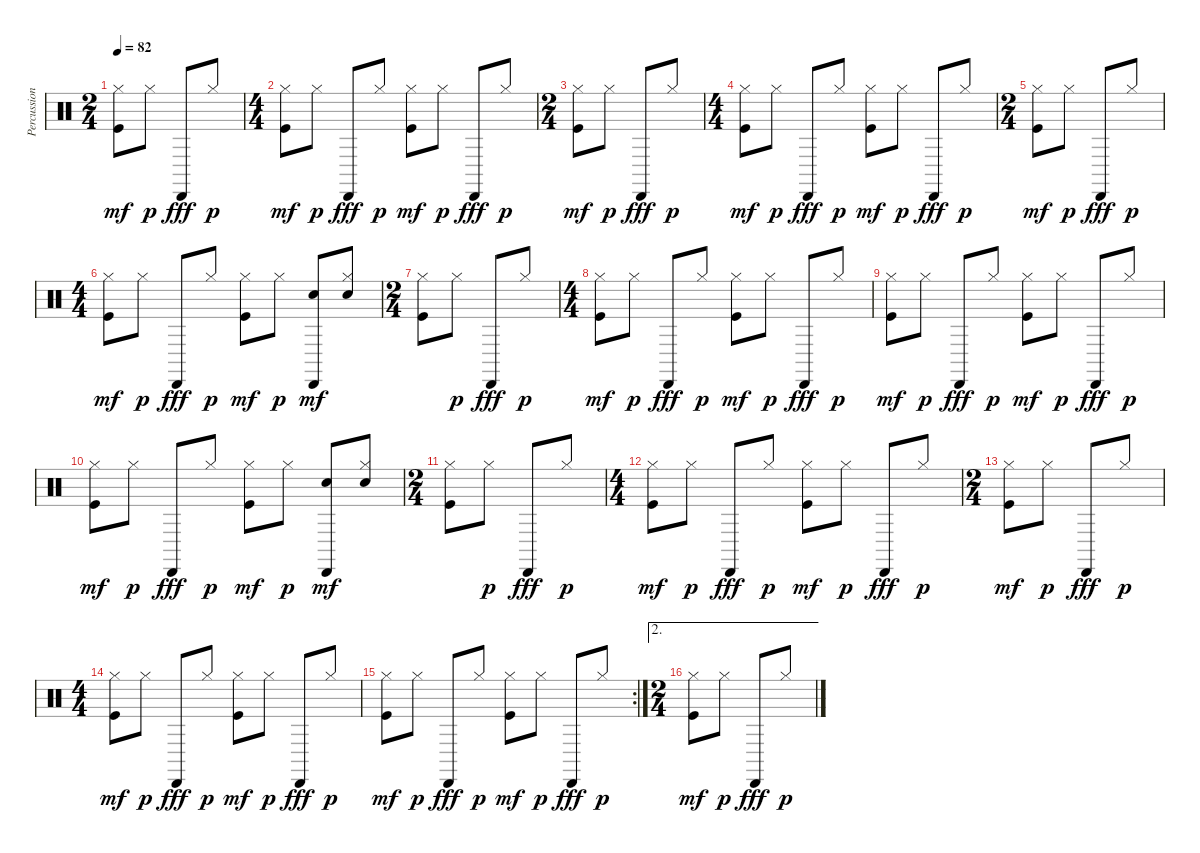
\track ("Percussions" "Percussion") {instrument percussion}
\staff {score}
\articulation defaults
\ts (2 4)
\tempo 82
\clef neutral
\ks c
("Hi-Hat (closed)" "Kick (hit)").8{dy mf} "Hi-Hat (closed)".8{dy p} "Cabasa (hit)".8{dy fff} "Hi-Hat (closed)".8{dy p} |
\ts (4 4)
("Hi-Hat (closed)" "Kick (hit)").8{dy mf} "Hi-Hat (closed)".8{dy p} "Cabasa (hit)".8{dy fff} "Hi-Hat (closed)".8{dy p} ("Hi-Hat (closed)" "Kick (hit)").8{dy mf} "Hi-Hat (closed)".8{dy p} "Cabasa (hit)".8{dy fff} "Hi-Hat (closed)".8{dy p} |
\ts (2 4)
("Hi-Hat (closed)" "Kick (hit)").8{dy mf} "Hi-Hat (closed)".8{dy p} "Cabasa (hit)".8{dy fff} "Hi-Hat (closed)".8{dy p} |
\ts (4 4)
("Hi-Hat (closed)" "Kick (hit)").8{dy mf} "Hi-Hat (closed)".8{dy p} "Cabasa (hit)".8{dy fff} "Hi-Hat (closed)".8{dy p} ("Hi-Hat (closed)" "Kick (hit)").8{dy mf} "Hi-Hat (closed)".8{dy p} "Cabasa (hit)".8{dy fff} "Hi-Hat (closed)".8{dy p} |
\ts (2 4)
("Hi-Hat (closed)" "Kick (hit)").8{dy mf} "Hi-Hat (closed)".8{dy p} "Cabasa (hit)".8{dy fff} "Hi-Hat (closed)".8{dy p} |
\ts (4 4)
("Hi-Hat (closed)" "Kick (hit)").8{dy mf} "Hi-Hat (closed)".8{dy p} "Cabasa (hit)".8{dy fff} "Hi-Hat (closed)".8{dy p} ("Hi-Hat (closed)" "Kick (hit)").8{dy mf} "Hi-Hat (closed)".8{dy p} ("Cabasa (hit)" "Snare (hit) 2").8{dy mf} ("Hi-Hat (closed)" "Snare (hit) 2").8 |
\ts (2 4)
("Hi-Hat (closed)" "Kick (hit)").8 "Hi-Hat (closed)".8{dy p} "Cabasa (hit)".8{dy fff} "Hi-Hat (closed)".8{dy p} |
\ts (4 4)
("Hi-Hat (closed)" "Kick (hit)").8{dy mf} "Hi-Hat (closed)".8{dy p} "Cabasa (hit)".8{dy fff} "Hi-Hat (closed)".8{dy p} ("Hi-Hat (closed)" "Kick (hit)").8{dy mf} "Hi-Hat (closed)".8{dy p} "Cabasa (hit)".8{dy fff} "Hi-Hat (closed)".8{dy p} |
("Hi-Hat (closed)" "Kick (hit)").8{dy mf} "Hi-Hat (closed)".8{dy p} "Cabasa (hit)".8{dy fff} "Hi-Hat (closed)".8{dy p} ("Hi-Hat (closed)" "Kick (hit)").8{dy mf} "Hi-Hat (closed)".8{dy p} "Cabasa (hit)".8{dy fff} "Hi-Hat (closed)".8{dy p} |
("Hi-Hat (closed)" "Kick (hit)").8{dy mf} "Hi-Hat (closed)".8{dy p} "Cabasa (hit)".8{dy fff} "Hi-Hat (closed)".8{dy p} ("Hi-Hat (closed)" "Kick (hit)").8{dy mf} "Hi-Hat (closed)".8{dy p} ("Cabasa (hit)" "Snare (hit) 2").8{dy mf} ("Hi-Hat (closed)" "Snare (hit) 2").8 |
\ts (2 4)
("Hi-Hat (closed)" "Kick (hit)").8 "Hi-Hat (closed)".8{dy p} "Cabasa (hit)".8{dy fff} "Hi-Hat (closed)".8{dy p} |
\ts (4 4)
("Hi-Hat (closed)" "Kick (hit)").8{dy mf} "Hi-Hat (closed)".8{dy p} "Cabasa (hit)".8{dy fff} "Hi-Hat (closed)".8{dy p} ("Hi-Hat (closed)" "Kick (hit)").8{dy mf} "Hi-Hat (closed)".8{dy p} "Cabasa (hit)".8{dy fff} "Hi-Hat (closed)".8{dy p} |
\ts (2 4)
("Hi-Hat (closed)" "Kick (hit)").8{dy mf} "Hi-Hat (closed)".8{dy p} "Cabasa (hit)".8{dy fff} "Hi-Hat (closed)".8{dy p} |
\ts (4 4)
("Hi-Hat (closed)" "Kick (hit)").8{dy mf} "Hi-Hat (closed)".8{dy p} "Cabasa (hit)".8{dy fff} "Hi-Hat (closed)".8{dy p} ("Hi-Hat (closed)" "Kick (hit)").8{dy mf} "Hi-Hat (closed)".8{dy p} "Cabasa (hit)".8{dy fff} "Hi-Hat (closed)".8{dy p} |
\rc 2
("Hi-Hat (closed)" "Kick (hit)").8{dy mf} "Hi-Hat (closed)".8{dy p} "Cabasa (hit)".8{dy fff} "Hi-Hat (closed)".8{dy p} ("Hi-Hat (closed)" "Kick (hit)").8{dy mf} "Hi-Hat (closed)".8{dy p} "Cabasa (hit)".8{dy fff} "Hi-Hat (closed)".8{dy p} |
\ae 2
\ts (2 4)
("Hi-Hat (closed)" "Kick (hit)").8{dy mf} "Hi-Hat (closed)".8{dy p} "Cabasa (hit)".8{dy fff} "Hi-Hat (closed)".8{dy p}
